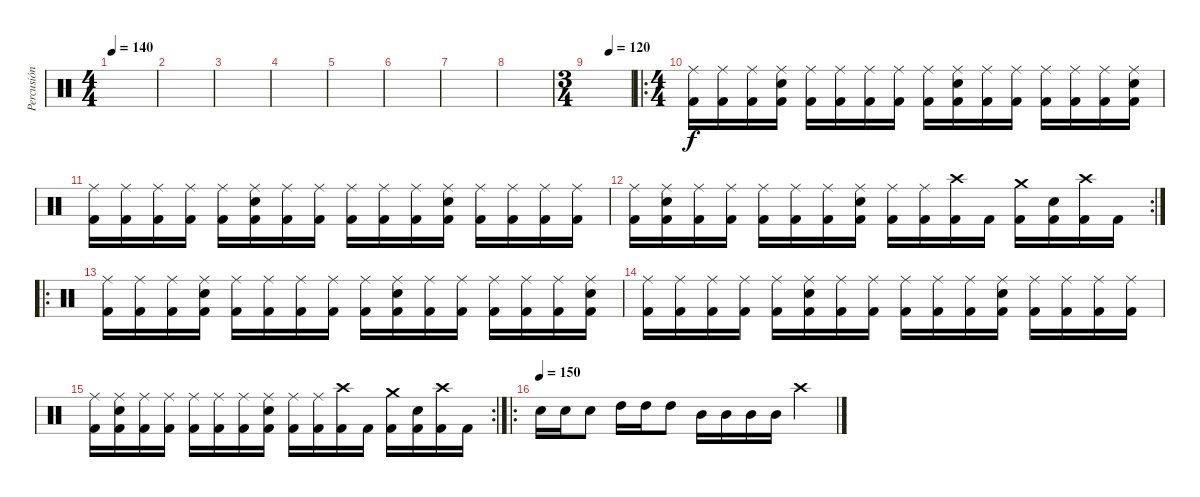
\track ("Percusión" "Percusión") {instrument percussion}
\staff {score}
\articulation defaults
\ts (4 4)
\tempo 140
\clef neutral
\ks c
|
|
|
|
|
|
|
|
\ts (3 4)
\tempo (120 0.5)
|
\ro
\ts (4 4)
("Ride (middle)" "Kick (hit) 2").16 ("Ride (middle)" "Kick (hit) 2").16 ("Ride (middle)" "Kick (hit) 2").16 ("Ride (middle)" "Snare (hit) 2" "Kick (hit) 2").16 ("Ride (middle)" "Kick (hit) 2").16 ("Ride (middle)" "Kick (hit) 2").16 ("Ride (middle)" "Kick (hit) 2").16 ("Ride (middle)" "Kick (hit) 2").16 ("Ride (middle)" "Kick (hit) 2").16 ("Ride (middle)" "Snare (hit) 2" "Kick (hit) 2").16 ("Ride (middle)" "Kick (hit) 2").16 ("Ride (middle)" "Kick (hit) 2").16 ("Ride (middle)" "Kick (hit) 2").16 ("Ride (middle)" "Kick (hit) 2").16 ("Ride (middle)" "Kick (hit) 2").16 ("Ride (middle)" "Snare (hit) 2" "Kick (hit) 2").16 |
("Ride (middle)" "Kick (hit) 2").16 ("Ride (middle)" "Kick (hit) 2").16 ("Ride (middle)" "Kick (hit) 2").16 ("Ride (middle)" "Kick (hit) 2").16 ("Ride (middle)" "Kick (hit) 2").16 ("Ride (middle)" "Snare (hit) 2" "Kick (hit) 2").16 ("Ride (middle)" "Kick (hit) 2").16 ("Ride (middle)" "Kick (hit) 2").16 ("Ride (middle)" "Kick (hit) 2").16 ("Ride (middle)" "Kick (hit) 2").16 ("Ride (middle)" "Kick (hit) 2").16 ("Ride (middle)" "Snare (hit) 2" "Kick (hit) 2").16 ("Ride (middle)" "Kick (hit) 2").16 ("Ride (middle)" "Kick (hit) 2").16 ("Ride (middle)" "Kick (hit) 2").16 ("Ride (middle)" "Kick (hit) 2").16 |
\rc 2
("Ride (middle)" "Kick (hit) 2").16 ("Ride (middle)" "Snare (hit) 2" "Kick (hit) 2").16 ("Ride (middle)" "Kick (hit) 2").16 ("Ride (middle)" "Kick (hit) 2").16 ("Ride (middle)" "Kick (hit) 2").16 ("Ride (middle)" "Kick (hit) 2").16 ("Ride (middle)" "Kick (hit) 2").16 ("Ride (middle)" "Snare (hit) 2" "Kick (hit) 2").16 ("Ride (middle)" "Kick (hit) 2").16 ("Ride (middle)" "Kick (hit) 2").16 ("Crash high (hit)" "Kick (hit) 2").16 "Kick (hit) 2".16 ("Crash medium (hit)" "Kick (hit) 2").16 ("Snare (hit) 2" "Kick (hit) 2").16 ("Crash high (hit)" "Kick (hit) 2").16 "Kick (hit) 2".16 |
\ro
("Ride (middle)" "Kick (hit) 2").16 ("Ride (middle)" "Kick (hit) 2").16 ("Ride (middle)" "Kick (hit) 2").16 ("Ride (middle)" "Snare (hit) 2" "Kick (hit) 2").16 ("Ride (middle)" "Kick (hit) 2").16 ("Ride (middle)" "Kick (hit) 2").16 ("Ride (middle)" "Kick (hit) 2").16 ("Ride (middle)" "Kick (hit) 2").16 ("Ride (middle)" "Kick (hit) 2").16 ("Ride (middle)" "Snare (hit) 2" "Kick (hit) 2").16 ("Ride (middle)" "Kick (hit) 2").16 ("Ride (middle)" "Kick (hit) 2").16 ("Ride (middle)" "Kick (hit) 2").16 ("Ride (middle)" "Kick (hit) 2").16 ("Ride (middle)" "Kick (hit) 2").16 ("Ride (middle)" "Snare (hit) 2" "Kick (hit) 2").16 |
("Ride (middle)" "Kick (hit) 2").16 ("Ride (middle)" "Kick (hit) 2").16 ("Ride (middle)" "Kick (hit) 2").16 ("Ride (middle)" "Kick (hit) 2").16 ("Ride (middle)" "Kick (hit) 2").16 ("Ride (middle)" "Snare (hit) 2" "Kick (hit) 2").16 ("Ride (middle)" "Kick (hit) 2").16 ("Ride (middle)" "Kick (hit) 2").16 ("Ride (middle)" "Kick (hit) 2").16 ("Ride (middle)" "Kick (hit) 2").16 ("Ride (middle)" "Kick (hit) 2").16 ("Ride (middle)" "Snare (hit) 2" "Kick (hit) 2").16 ("Ride (middle)" "Kick (hit) 2").16 ("Ride (middle)" "Kick (hit) 2").16 ("Ride (middle)" "Kick (hit) 2").16 ("Ride (middle)" "Kick (hit) 2").16 |
\rc 2
("Ride (middle)" "Kick (hit) 2").16 ("Ride (middle)" "Snare (hit) 2" "Kick (hit) 2").16 ("Ride (middle)" "Kick (hit) 2").16 ("Ride (middle)" "Kick (hit) 2").16 ("Ride (middle)" "Kick (hit) 2").16 ("Ride (middle)" "Kick (hit) 2").16 ("Ride (middle)" "Kick (hit) 2").16 ("Ride (middle)" "Snare (hit) 2" "Kick (hit) 2").16 ("Ride (middle)" "Kick (hit) 2").16 ("Ride (middle)" "Kick (hit) 2").16 ("Crash high (hit)" "Kick (hit) 2").16 "Kick (hit) 2".16 ("Crash medium (hit)" "Kick (hit) 2").16 ("Snare (hit) 2" "Kick (hit) 2").16 ("Crash high (hit)" "Kick (hit) 2").16 "Kick (hit) 2".16 |
\ro
\tempo (150)
"Snare (hit) 2".16{dy f} "Snare (hit) 2".16 "Snare (hit) 2".8 "High Tom (hit)".16 "High Tom (hit)".16 "High Tom (hit)".8 "Mid Tom (hit)".16 "Mid Tom (hit)".16 "Mid Tom (hit)".16 "Mid Tom (hit)".16 "Crash high (hit)".4
